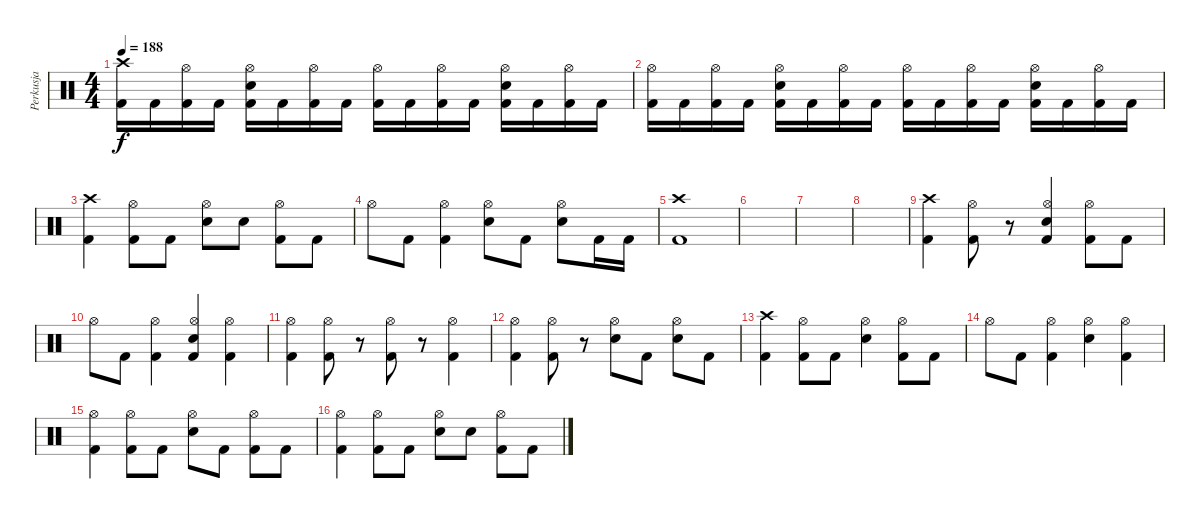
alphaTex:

\track ("Perkusja" "Perkusja") {instrument percussion}
\staff {score}
\articulation defaults
\ts (4 4)
\tempo 188
\clef neutral
\ks c
("Crash high (hit)" "Kick (hit) 2").16{dy f} "Kick (hit) 2".16 ("Hi-Hat (open)" "Kick (hit) 2").16 "Kick (hit) 2".16 ("Hi-Hat (open)" "Electric Snare (hit)" "Kick (hit) 2").16 "Kick (hit) 2".16 ("Hi-Hat (open)" "Kick (hit) 2").16 "Kick (hit) 2".16 ("Hi-Hat (open)" "Kick (hit) 2").16 "Kick (hit) 2".16 ("Hi-Hat (open)" "Kick (hit) 2").16 "Kick (hit) 2".16 ("Hi-Hat (open)" "Electric Snare (hit)" "Kick (hit) 2").16 "Kick (hit) 2".16 ("Hi-Hat (open)" "Kick (hit) 2").16 "Kick (hit) 2".16 |
("Hi-Hat (open)" "Kick (hit) 2").16 "Kick (hit) 2".16 ("Hi-Hat (open)" "Kick (hit) 2").16 "Kick (hit) 2".16 ("Hi-Hat (open)" "Electric Snare (hit)" "Kick (hit) 2").16 "Kick (hit) 2".16 ("Hi-Hat (open)" "Kick (hit) 2").16 "Kick (hit) 2".16 ("Hi-Hat (open)" "Kick (hit) 2").16 "Kick (hit) 2".16 ("Hi-Hat (open)" "Kick (hit) 2").16 "Kick (hit) 2".16 ("Hi-Hat (open)" "Electric Snare (hit)" "Kick (hit) 2").16 "Kick (hit) 2".16 ("Hi-Hat (open)" "Kick (hit) 2").16 "Kick (hit) 2".16 |
("Crash high (hit)" "Kick (hit) 2").4 ("Hi-Hat (open)" "Kick (hit) 2").8 "Kick (hit) 2".8 ("Hi-Hat (open)" "Electric Snare (hit)").8 "Electric Snare (hit)".8 ("Hi-Hat (open)" "Kick (hit) 2").8 "Kick (hit) 2".8 |
"Hi-Hat (open)".8 "Kick (hit) 2".8 ("Hi-Hat (open)" "Kick (hit) 2").4 ("Hi-Hat (open)" "Electric Snare (hit)").8 "Kick (hit) 2".8 ("Hi-Hat (open)" "Electric Snare (hit)").8 "Kick (hit) 2".16 "Kick (hit) 2".16 |
("Crash high (hit)" "Kick (hit) 2").1 |
|
|
|
("Crash high (hit)" "Kick (hit) 2").4 ("Hi-Hat (open)" "Kick (hit) 2").8 r.8 ("Hi-Hat (open)" "Electric Snare (hit)" "Kick (hit) 2").4 ("Hi-Hat (open)" "Kick (hit) 2").8 "Kick (hit) 2".8 |
"Hi-Hat (open)".8 "Kick (hit) 2".8 ("Hi-Hat (open)" "Kick (hit) 2").4 ("Hi-Hat (open)" "Electric Snare (hit)" "Kick (hit) 2").4 ("Hi-Hat (open)" "Kick (hit) 2").4 |
("Hi-Hat (open)" "Kick (hit) 2").4 ("Hi-Hat (open)" "Kick (hit) 2").8 r.8 ("Hi-Hat (open)" "Kick (hit) 2").8 r.8 ("Hi-Hat (open)" "Kick (hit) 2").4 |
("Hi-Hat (open)" "Kick (hit) 2").4 ("Hi-Hat (open)" "Kick (hit) 2").8 r.8 ("Hi-Hat (open)" "Electric Snare (hit)").8 "Kick (hit) 2".8 ("Hi-Hat (open)" "Electric Snare (hit)").8 "Kick (hit) 2".8 |
("Crash high (hit)" "Kick (hit) 2").4 ("Hi-Hat (open)" "Kick (hit) 2").8 "Kick (hit) 2".8 ("Hi-Hat (open)" "Electric Snare (hit)").4 ("Hi-Hat (open)" "Kick (hit) 2").8 "Kick (hit) 2".8 |
"Hi-Hat (open)".8 "Kick (hit) 2".8 ("Hi-Hat (open)" "Kick (hit) 2").4 ("Hi-Hat (open)" "Electric Snare (hit)").4 ("Hi-Hat (open)" "Kick (hit) 2").4 |
("Hi-Hat (open)" "Kick (hit) 2").4 ("Hi-Hat (open)" "Kick (hit) 2").8 "Kick (hit) 2".8 ("Hi-Hat (open)" "Electric Snare (hit)").8 "Kick (hit) 2".8 ("Hi-Hat (open)" "Kick (hit) 2").8 "Kick (hit) 2".8 |
("Hi-Hat (open)" "Kick (hit) 2").4 ("Hi-Hat (open)" "Kick (hit) 2").8 "Kick (hit) 2".8 ("Hi-Hat (open)" "Electric Snare (hit)").8 "Electric Snare (hit)".8 ("Hi-Hat (open)" "Kick (hit) 2").8 "Kick (hit) 2".8
